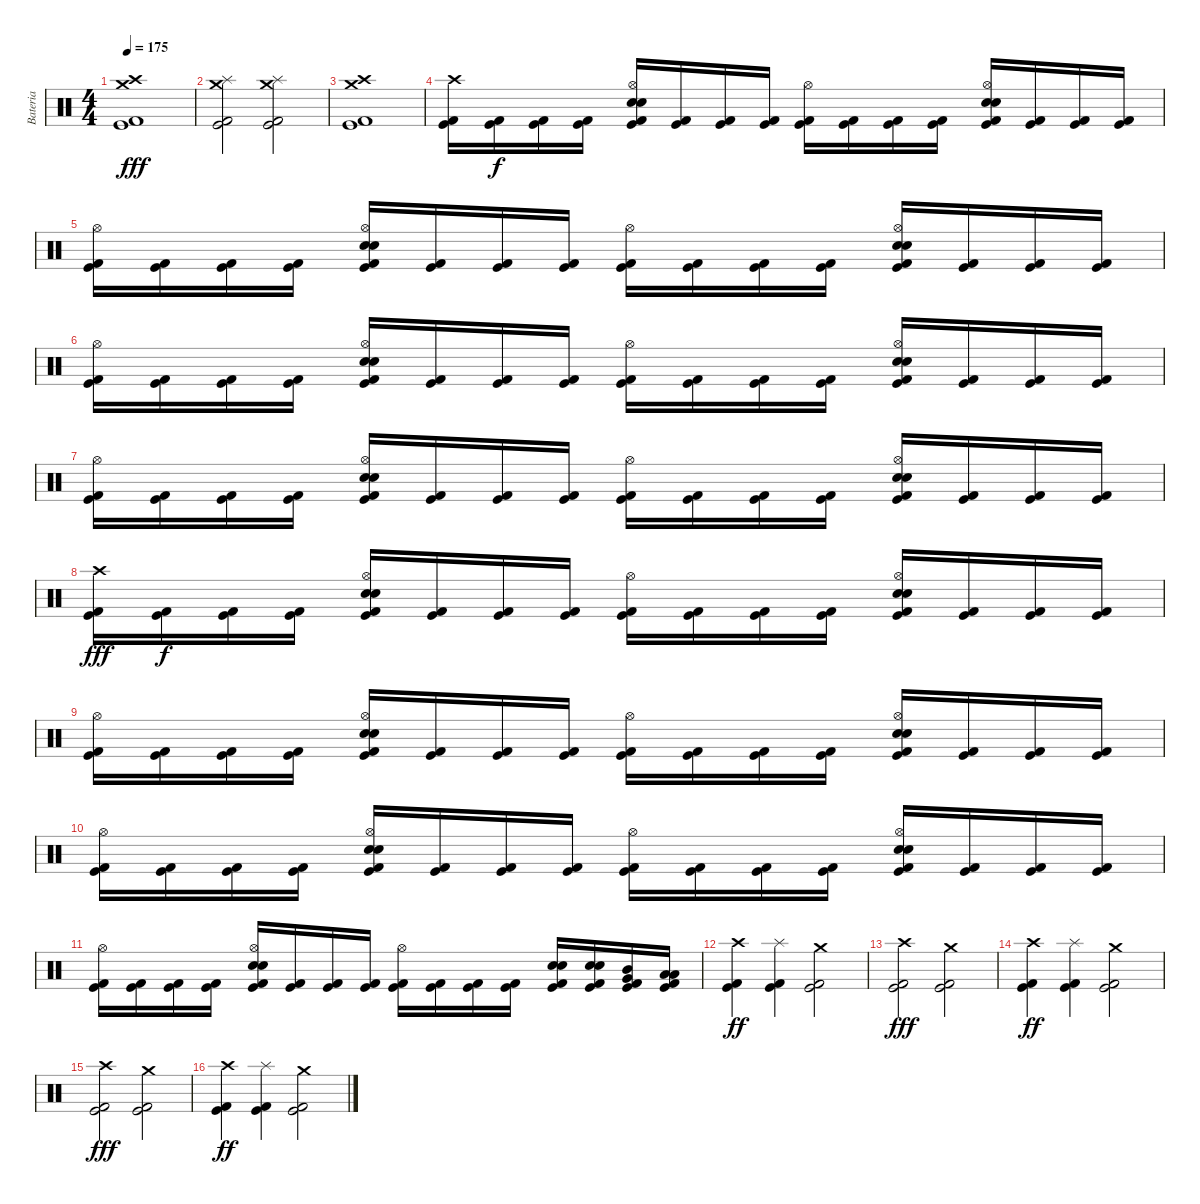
\track ("Bateria" "Bateria") {instrument percussion}
\staff {score}
\articulation defaults
\ts (4 4)
\tempo 175
\clef neutral
\ks c
("Crash high (hit)" "Crash medium (hit)" "Kick (hit) 2" "Kick (hit)").1{dy fff} |
("Crash medium (hit)" "Splash (hit)" "Kick (hit) 2" "Kick (hit)").2 ("Crash medium (hit)" "Splash (hit)" "Kick (hit) 2" "Kick (hit)").2 |
("Crash high (hit)" "Crash medium (hit)" "Kick (hit) 2" "Kick (hit)").1 |
("Crash high (hit)" "Kick (hit) 2" "Kick (hit)").16 ("Kick (hit) 2" "Kick (hit)").16{dy f} ("Kick (hit) 2" "Kick (hit)").16 ("Kick (hit) 2" "Kick (hit)").16 ("Hi-Hat (open)" "Electric Snare (hit)" "Snare (hit) 2" "Kick (hit) 2" "Kick (hit)").16 ("Kick (hit) 2" "Kick (hit)").16 ("Kick (hit) 2" "Kick (hit)").16 ("Kick (hit) 2" "Kick (hit)").16 ("Hi-Hat (open)" "Kick (hit) 2" "Kick (hit)").16 ("Kick (hit) 2" "Kick (hit)").16 ("Kick (hit) 2" "Kick (hit)").16 ("Kick (hit) 2" "Kick (hit)").16 ("Hi-Hat (open)" "Electric Snare (hit)" "Snare (hit) 2" "Kick (hit) 2" "Kick (hit)").16 ("Kick (hit) 2" "Kick (hit)").16 ("Kick (hit) 2" "Kick (hit)").16 ("Kick (hit) 2" "Kick (hit)").16 |
("Hi-Hat (open)" "Kick (hit) 2" "Kick (hit)").16 ("Kick (hit) 2" "Kick (hit)").16 ("Kick (hit) 2" "Kick (hit)").16 ("Kick (hit) 2" "Kick (hit)").16 ("Hi-Hat (open)" "Electric Snare (hit)" "Snare (hit) 2" "Kick (hit) 2" "Kick (hit)").16 ("Kick (hit) 2" "Kick (hit)").16 ("Kick (hit) 2" "Kick (hit)").16 ("Kick (hit) 2" "Kick (hit)").16 ("Hi-Hat (open)" "Kick (hit) 2" "Kick (hit)").16 ("Kick (hit) 2" "Kick (hit)").16 ("Kick (hit) 2" "Kick (hit)").16 ("Kick (hit) 2" "Kick (hit)").16 ("Hi-Hat (open)" "Electric Snare (hit)" "Snare (hit) 2" "Kick (hit) 2" "Kick (hit)").16 ("Kick (hit) 2" "Kick (hit)").16 ("Kick (hit) 2" "Kick (hit)").16 ("Kick (hit) 2" "Kick (hit)").16 |
("Hi-Hat (open)" "Kick (hit) 2" "Kick (hit)").16 ("Kick (hit) 2" "Kick (hit)").16 ("Kick (hit) 2" "Kick (hit)").16 ("Kick (hit) 2" "Kick (hit)").16 ("Hi-Hat (open)" "Electric Snare (hit)" "Snare (hit) 2" "Kick (hit) 2" "Kick (hit)").16 ("Kick (hit) 2" "Kick (hit)").16 ("Kick (hit) 2" "Kick (hit)").16 ("Kick (hit) 2" "Kick (hit)").16 ("Hi-Hat (open)" "Kick (hit) 2" "Kick (hit)").16 ("Kick (hit) 2" "Kick (hit)").16 ("Kick (hit) 2" "Kick (hit)").16 ("Kick (hit) 2" "Kick (hit)").16 ("Hi-Hat (open)" "Electric Snare (hit)" "Snare (hit) 2" "Kick (hit) 2" "Kick (hit)").16 ("Kick (hit) 2" "Kick (hit)").16 ("Kick (hit) 2" "Kick (hit)").16 ("Kick (hit) 2" "Kick (hit)").16 |
("Hi-Hat (open)" "Kick (hit) 2" "Kick (hit)").16 ("Kick (hit) 2" "Kick (hit)").16 ("Kick (hit) 2" "Kick (hit)").16 ("Kick (hit) 2" "Kick (hit)").16 ("Hi-Hat (open)" "Electric Snare (hit)" "Snare (hit) 2" "Kick (hit) 2" "Kick (hit)").16 ("Kick (hit) 2" "Kick (hit)").16 ("Kick (hit) 2" "Kick (hit)").16 ("Kick (hit) 2" "Kick (hit)").16 ("Hi-Hat (open)" "Kick (hit) 2" "Kick (hit)").16 ("Kick (hit) 2" "Kick (hit)").16 ("Kick (hit) 2" "Kick (hit)").16 ("Kick (hit) 2" "Kick (hit)").16 ("Hi-Hat (open)" "Electric Snare (hit)" "Snare (hit) 2" "Kick (hit) 2" "Kick (hit)").16 ("Kick (hit) 2" "Kick (hit)").16 ("Kick (hit) 2" "Kick (hit)").16 ("Kick (hit) 2" "Kick (hit)").16 |
("Crash high (hit)" "Kick (hit) 2" "Kick (hit)").16{dy fff} ("Kick (hit) 2" "Kick (hit)").16{dy f} ("Kick (hit) 2" "Kick (hit)").16 ("Kick (hit) 2" "Kick (hit)").16 ("Hi-Hat (open)" "Electric Snare (hit)" "Snare (hit) 2" "Kick (hit) 2" "Kick (hit)").16 ("Kick (hit) 2" "Kick (hit)").16 ("Kick (hit) 2" "Kick (hit)").16 ("Kick (hit) 2" "Kick (hit)").16 ("Hi-Hat (open)" "Kick (hit) 2" "Kick (hit)").16 ("Kick (hit) 2" "Kick (hit)").16 ("Kick (hit) 2" "Kick (hit)").16 ("Kick (hit) 2" "Kick (hit)").16 ("Hi-Hat (open)" "Electric Snare (hit)" "Snare (hit) 2" "Kick (hit) 2" "Kick (hit)").16 ("Kick (hit) 2" "Kick (hit)").16 ("Kick (hit) 2" "Kick (hit)").16 ("Kick (hit) 2" "Kick (hit)").16 |
("Hi-Hat (open)" "Kick (hit) 2" "Kick (hit)").16 ("Kick (hit) 2" "Kick (hit)").16 ("Kick (hit) 2" "Kick (hit)").16 ("Kick (hit) 2" "Kick (hit)").16 ("Hi-Hat (open)" "Electric Snare (hit)" "Snare (hit) 2" "Kick (hit) 2" "Kick (hit)").16 ("Kick (hit) 2" "Kick (hit)").16 ("Kick (hit) 2" "Kick (hit)").16 ("Kick (hit) 2" "Kick (hit)").16 ("Hi-Hat (open)" "Kick (hit) 2" "Kick (hit)").16 ("Kick (hit) 2" "Kick (hit)").16 ("Kick (hit) 2" "Kick (hit)").16 ("Kick (hit) 2" "Kick (hit)").16 ("Hi-Hat (open)" "Electric Snare (hit)" "Snare (hit) 2" "Kick (hit) 2" "Kick (hit)").16 ("Kick (hit) 2" "Kick (hit)").16 ("Kick (hit) 2" "Kick (hit)").16 ("Kick (hit) 2" "Kick (hit)").16 |
("Hi-Hat (open)" "Kick (hit) 2" "Kick (hit)").16 ("Kick (hit) 2" "Kick (hit)").16 ("Kick (hit) 2" "Kick (hit)").16 ("Kick (hit) 2" "Kick (hit)").16 ("Hi-Hat (open)" "Electric Snare (hit)" "Snare (hit) 2" "Kick (hit) 2" "Kick (hit)").16 ("Kick (hit) 2" "Kick (hit)").16 ("Kick (hit) 2" "Kick (hit)").16 ("Kick (hit) 2" "Kick (hit)").16 ("Hi-Hat (open)" "Kick (hit) 2" "Kick (hit)").16 ("Kick (hit) 2" "Kick (hit)").16 ("Kick (hit) 2" "Kick (hit)").16 ("Kick (hit) 2" "Kick (hit)").16 ("Hi-Hat (open)" "Electric Snare (hit)" "Snare (hit) 2" "Kick (hit) 2" "Kick (hit)").16 ("Kick (hit) 2" "Kick (hit)").16 ("Kick (hit) 2" "Kick (hit)").16 ("Kick (hit) 2" "Kick (hit)").16 |
("Hi-Hat (open)" "Kick (hit) 2" "Kick (hit)").16 ("Kick (hit) 2" "Kick (hit)").16 ("Kick (hit) 2" "Kick (hit)").16 ("Kick (hit) 2" "Kick (hit)").16 ("Hi-Hat (open)" "Electric Snare (hit)" "Snare (hit) 2" "Kick (hit) 2" "Kick (hit)").16 ("Kick (hit) 2" "Kick (hit)").16 ("Kick (hit) 2" "Kick (hit)").16 ("Kick (hit) 2" "Kick (hit)").16 ("Hi-Hat (open)" "Kick (hit) 2" "Kick (hit)").16 ("Kick (hit) 2" "Kick (hit)").16 ("Kick (hit) 2" "Kick (hit)").16 ("Kick (hit) 2" "Kick (hit)").16 ("Electric Snare (hit)" "Snare (hit) 2" "Kick (hit) 2" "Kick (hit)").16 ("Electric Snare (hit)" "Snare (hit) 2" "Kick (hit) 2" "Kick (hit)").16 ("Mid Tom (hit)" "Very Low Tom (hit)" "Kick (hit) 2" "Kick (hit)").16 ("Low Tom (hit)" "Low Floor Tom (hit)" "Kick (hit) 2" "Kick (hit)").16 |
("Crash high (hit)" "Kick (hit) 2" "Kick (hit)").4{dy ff} ("Splash (hit)" "Kick (hit) 2" "Kick (hit)").4 ("Crash medium (hit)" "Kick (hit) 2" "Kick (hit)").2 |
("Crash high (hit)" "Kick (hit) 2" "Kick (hit)").2{dy fff} ("Crash medium (hit)" "Kick (hit) 2" "Kick (hit)").2 |
("Crash high (hit)" "Kick (hit) 2" "Kick (hit)").4{dy ff} ("Splash (hit)" "Kick (hit) 2" "Kick (hit)").4 ("Crash medium (hit)" "Kick (hit) 2" "Kick (hit)").2 |
("Crash high (hit)" "Kick (hit) 2" "Kick (hit)").2{dy fff} ("Crash medium (hit)" "Kick (hit) 2" "Kick (hit)").2 |
("Crash high (hit)" "Kick (hit) 2" "Kick (hit)").4{dy ff} ("Splash (hit)" "Kick (hit) 2" "Kick (hit)").4 ("Crash medium (hit)" "Kick (hit) 2" "Kick (hit)").2
